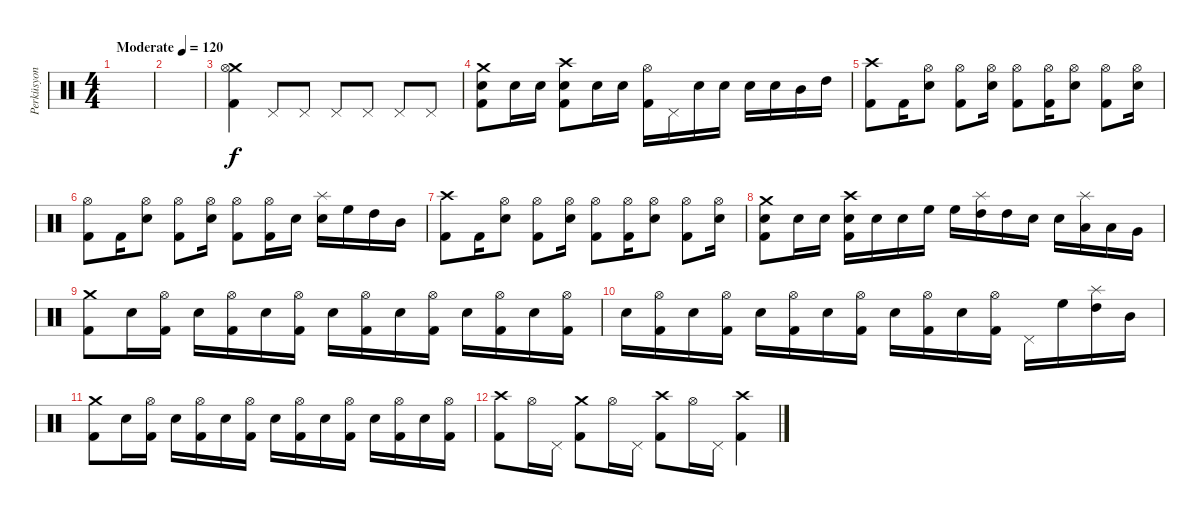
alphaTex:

\track ("Perküsyon" "Perküsyon") {instrument percussion}
\staff {score}
\articulation defaults
\ts (4 4)
\tempo (120 "Moderate")
\clef neutral
\ks c
|
|
("Crash medium (hit)" "Hi-Hat (open)" "Kick (hit) 2").4 "Pedal Hi-Hat (hit)".8 "Pedal Hi-Hat (hit)".8 "Pedal Hi-Hat (hit)".8 "Pedal Hi-Hat (hit)".8 "Pedal Hi-Hat (hit)".8 "Pedal Hi-Hat (hit)".8 |
("Crash medium (hit)" "Electric Snare (hit)" "Kick (hit) 2").8 "Electric Snare (hit)".16 "Electric Snare (hit)".16 ("Crash high (hit)" "Electric Snare (hit)" "Kick (hit) 2").8 "Electric Snare (hit)".16 "Electric Snare (hit)".16 ("Hi-Hat (open)" "Kick (hit) 2").16 "Pedal Hi-Hat (hit)".16 "Electric Snare (hit)".16 "Electric Snare (hit)".16 "Electric Snare (hit)".16 "Electric Snare (hit)".16 "Mid Tom (hit)".16 "High Tom (hit)".16 |
("Crash high (hit)" "Kick (hit) 2").8 "Kick (hit) 2".16 ("Hi-Hat (open)" "Electric Snare (hit)").8 ("Hi-Hat (open)" "Kick (hit) 2").8 ("Hi-Hat (open)" "Electric Snare (hit)").16 ("Hi-Hat (open)" "Kick (hit) 2").8 ("Hi-Hat (open)" "Kick (hit) 2").16 ("Hi-Hat (open)" "Electric Snare (hit)").8 ("Hi-Hat (open)" "Kick (hit) 2").8 ("Hi-Hat (open)" "Electric Snare (hit)").16 |
("Hi-Hat (open)" "Kick (hit) 2").8 "Kick (hit) 2".16 ("Hi-Hat (open)" "Electric Snare (hit)").8 ("Hi-Hat (open)" "Kick (hit) 2").8 ("Hi-Hat (open)" "Electric Snare (hit)").16 ("Hi-Hat (open)" "Kick (hit) 2").8 ("Hi-Hat (open)" "Kick (hit) 2").16 "Electric Snare (hit)".16 ("Splash (hit)" "Electric Snare (hit)").16 "High Floor Tom (hit)".16 "High Tom (hit)".16 "Mid Tom (hit)".16 |
("Crash high (hit)" "Kick (hit) 2").8 "Kick (hit) 2".16 ("Hi-Hat (open)" "Electric Snare (hit)").8 ("Hi-Hat (open)" "Kick (hit) 2").8 ("Hi-Hat (open)" "Electric Snare (hit)").16 ("Hi-Hat (open)" "Kick (hit) 2").8 ("Hi-Hat (open)" "Kick (hit) 2").16 ("Hi-Hat (open)" "Electric Snare (hit)").8 ("Hi-Hat (open)" "Kick (hit) 2").8 ("Hi-Hat (open)" "Electric Snare (hit)").16 |
("Crash medium (hit)" "Electric Snare (hit)" "Kick (hit) 2").8 "Electric Snare (hit)".16 "Electric Snare (hit)".16 ("Crash high (hit)" "Electric Snare (hit)" "Kick (hit) 2").16 "Electric Snare (hit)".16 "Electric Snare (hit)".16 "High Floor Tom (hit)".16 "High Floor Tom (hit)".16 ("Splash (hit)" "High Tom (hit)").16 "High Tom (hit)".16 "Electric Snare (hit)".16 "Electric Snare (hit)".16 ("Splash (hit)" "Low Tom (hit)").16 "Low Tom (hit)".16 "Very Low Tom (hit)".16 |
("Crash medium (hit)" "Kick (hit) 2").8 "Electric Snare (hit)".16 ("Hi-Hat (open)" "Kick (hit) 2").16 "Electric Snare (hit)".16 ("Hi-Hat (open)" "Kick (hit) 2").16 "Electric Snare (hit)".16 ("Hi-Hat (open)" "Kick (hit) 2").16 "Electric Snare (hit)".16 ("Hi-Hat (open)" "Kick (hit) 2").16 "Electric Snare (hit)".16 ("Hi-Hat (open)" "Kick (hit) 2").16 "Electric Snare (hit)".16 ("Hi-Hat (open)" "Kick (hit) 2").16 "Electric Snare (hit)".16 ("Hi-Hat (open)" "Kick (hit) 2").16 |
"Electric Snare (hit)".16 ("Hi-Hat (open)" "Kick (hit) 2").16 "Electric Snare (hit)".16 ("Hi-Hat (open)" "Kick (hit) 2").16 "Electric Snare (hit)".16 ("Hi-Hat (open)" "Kick (hit) 2").16 "Electric Snare (hit)".16 ("Hi-Hat (open)" "Kick (hit) 2").16 "Electric Snare (hit)".16 ("Hi-Hat (open)" "Kick (hit) 2").16 "Electric Snare (hit)".16 ("Hi-Hat (open)" "Kick (hit) 2").16 "Pedal Hi-Hat (hit)".16 "High Floor Tom (hit)".16 ("Splash (hit)" "High Tom (hit)").16 "Mid Tom (hit)".16 |
("Crash medium (hit)" "Kick (hit) 2").8 "Electric Snare (hit)".16 ("Hi-Hat (open)" "Kick (hit) 2").16 "Electric Snare (hit)".16 ("Hi-Hat (open)" "Kick (hit) 2").16 "Electric Snare (hit)".16 ("Hi-Hat (open)" "Kick (hit) 2").16 "Electric Snare (hit)".16 ("Hi-Hat (open)" "Kick (hit) 2").16 "Electric Snare (hit)".16 ("Hi-Hat (open)" "Kick (hit) 2").16 "Electric Snare (hit)".16 ("Hi-Hat (open)" "Kick (hit) 2").16 "Electric Snare (hit)".16 ("Hi-Hat (open)" "Kick (hit) 2").16 |
("Crash high (hit)" "Kick (hit) 2").8 "Hi-Hat (open)".16 "Pedal Hi-Hat (hit)".16 ("Crash medium (hit)" "Kick (hit) 2").8 "Hi-Hat (open)".16 "Pedal Hi-Hat (hit)".16 ("Crash high (hit)" "Kick (hit) 2").8 "Hi-Hat (open)".16 "Pedal Hi-Hat (hit)".16 ("Crash high (hit)" "Kick (hit) 2").4
